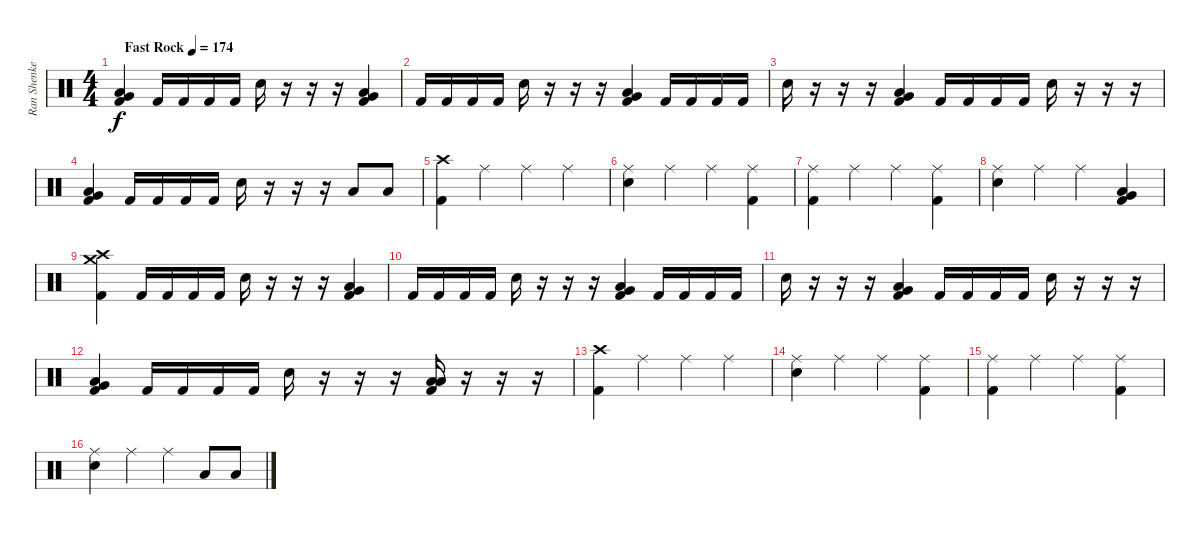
\track ("Ran Shenkerman" "Ran Shenke") {instrument percussion}
\staff {score}
\articulation defaults
\ts (4 4)
\tempo (174 "Fast Rock")
\clef neutral
\ks c
("Very Low Tom (hit)" "Low Floor Tom (hit)" "Kick (hit) 2").4{dy f} "Kick (hit) 2".16 "Kick (hit) 2".16 "Kick (hit) 2".16 "Kick (hit) 2".16 "Snare (hit) 2".16 r.16 r.16 r.16 ("Very Low Tom (hit)" "Low Floor Tom (hit)" "Kick (hit) 2").4 |
"Kick (hit) 2".16 "Kick (hit) 2".16 "Kick (hit) 2".16 "Kick (hit) 2".16 "Snare (hit) 2".16 r.16 r.16 r.16 ("Very Low Tom (hit)" "Low Floor Tom (hit)" "Kick (hit) 2").4 "Kick (hit) 2".16 "Kick (hit) 2".16 "Kick (hit) 2".16 "Kick (hit) 2".16 |
"Snare (hit) 2".16 r.16 r.16 r.16 ("Very Low Tom (hit)" "Low Floor Tom (hit)" "Kick (hit) 2").4 "Kick (hit) 2".16 "Kick (hit) 2".16 "Kick (hit) 2".16 "Kick (hit) 2".16 "Snare (hit) 2".16 r.16 r.16 r.16 |
("Very Low Tom (hit)" "Low Floor Tom (hit)" "Kick (hit) 2").4 "Kick (hit) 2".16 "Kick (hit) 2".16 "Kick (hit) 2".16 "Kick (hit) 2".16 "Snare (hit) 2".16 r.16 r.16 r.16 "Low Floor Tom (hit)".8 "Low Floor Tom (hit)".8 |
("Crash high (hit)" "Kick (hit) 2").4 "Ride (middle)".4 "Ride (middle)".4 "Ride (middle)".4 |
("Ride (middle)" "Snare (hit) 2").4 "Ride (middle)".4 "Ride (middle)".4 ("Ride (middle)" "Kick (hit) 2").4 |
("Ride (middle)" "Kick (hit) 2").4 "Ride (middle)".4 "Ride (middle)".4 ("Ride (middle)" "Kick (hit) 2").4 |
("Ride (middle)" "Snare (hit) 2").4 "Ride (middle)".4 "Ride (middle)".4 ("Very Low Tom (hit)" "Low Floor Tom (hit)" "Kick (hit) 2").4 |
("Crash high (hit)" "Crash medium (hit)" "Kick (hit) 2").4 "Kick (hit) 2".16 "Kick (hit) 2".16 "Kick (hit) 2".16 "Kick (hit) 2".16 "Snare (hit) 2".16 r.16 r.16 r.16 ("Very Low Tom (hit)" "Low Floor Tom (hit)" "Kick (hit) 2").4 |
"Kick (hit) 2".16 "Kick (hit) 2".16 "Kick (hit) 2".16 "Kick (hit) 2".16 "Snare (hit) 2".16 r.16 r.16 r.16 ("Very Low Tom (hit)" "Low Floor Tom (hit)" "Kick (hit) 2").4 "Kick (hit) 2".16 "Kick (hit) 2".16 "Kick (hit) 2".16 "Kick (hit) 2".16 |
"Snare (hit) 2".16 r.16 r.16 r.16 ("Very Low Tom (hit)" "Low Floor Tom (hit)" "Kick (hit) 2").4 "Kick (hit) 2".16 "Kick (hit) 2".16 "Kick (hit) 2".16 "Kick (hit) 2".16 "Snare (hit) 2".16 r.16 r.16 r.16 |
("Very Low Tom (hit)" "Low Floor Tom (hit)" "Kick (hit) 2").4 "Kick (hit) 2".16 "Kick (hit) 2".16 "Kick (hit) 2".16 "Kick (hit) 2".16 "Snare (hit) 2".16 r.16 r.16 r.16 ("Low Tom (hit)" "Low Floor Tom (hit)" "Kick (hit) 2").16 r.16 r.16 r.16 |
("Crash high (hit)" "Kick (hit) 2").4 "Ride (middle)".4 "Ride (middle)".4 "Ride (middle)".4 |
("Ride (middle)" "Snare (hit) 2").4 "Ride (middle)".4 "Ride (middle)".4 ("Ride (middle)" "Kick (hit) 2").4 |
("Ride (middle)" "Kick (hit) 2").4 "Ride (middle)".4 "Ride (middle)".4 ("Ride (middle)" "Kick (hit) 2").4 |
("Ride (middle)" "Snare (hit) 2").4 "Ride (middle)".4 "Ride (middle)".4 "Low Floor Tom (hit)".8 "Low Floor Tom (hit)".8
